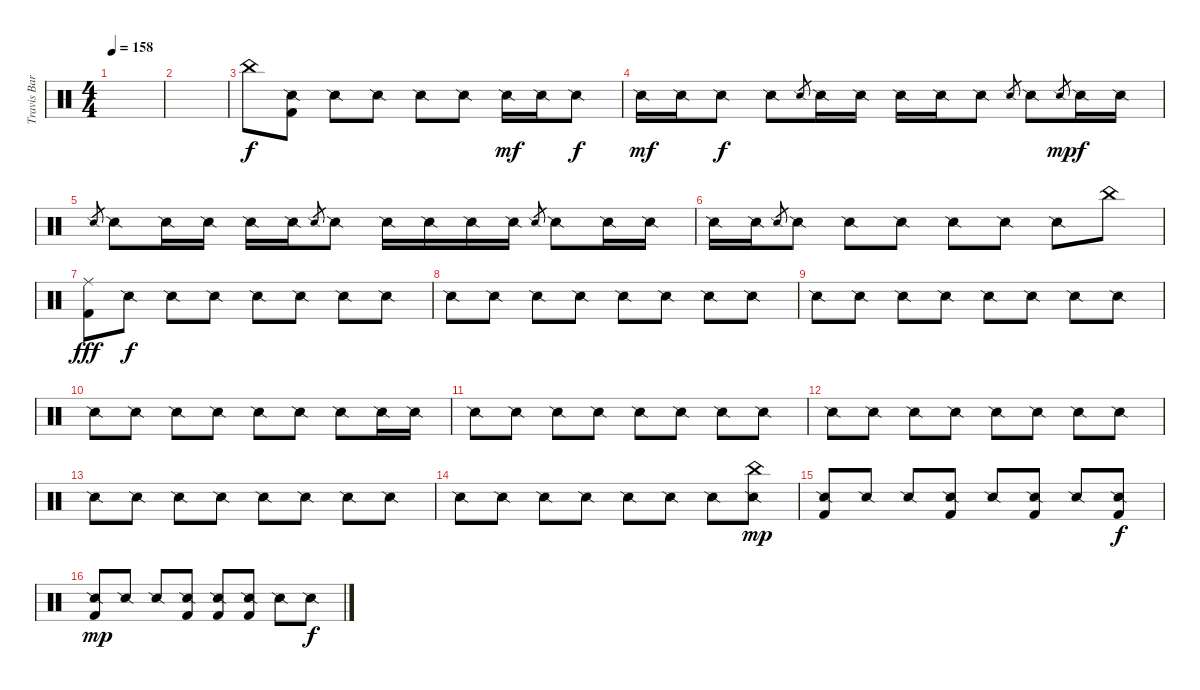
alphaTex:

\track ("Travis Barker - Drums" "Travis Bar") {instrument percussion}
\staff {score}
\articulation defaults
\ts (4 4)
\tempo 158
\clef neutral
\ks c
|
|
"China (hit)".8 ("Snare (side stick) 2" "Kick (hit) 2").8 "Snare (side stick) 2".8 "Snare (side stick) 2".8 "Snare (side stick) 2".8 "Snare (side stick) 2".8 "Snare (side stick) 2".16{dy mf} "Snare (side stick) 2".16 "Snare (side stick) 2".8{dy f} |
"Snare (side stick) 2".16{dy mf} "Snare (side stick) 2".16 "Snare (side stick) 2".8{dy f} "Snare (side stick) 2".8 "Snare (side stick) 2".8{gr} "Snare (side stick) 2".16 "Snare (side stick) 2".16 "Snare (side stick) 2".16 "Snare (side stick) 2".16 "Snare (side stick) 2".8 "Snare (side stick) 2".8{gr} "Snare (side stick) 2".8 "Snare (side stick) 2".8{gr dy mp} "Snare (side stick) 2".16{dy f} "Snare (side stick) 2".16 |
"Snare (side stick) 2".8{gr} "Snare (side stick) 2".8 "Snare (side stick) 2".16 "Snare (side stick) 2".16 "Snare (side stick) 2".16 "Snare (side stick) 2".16 "Snare (side stick) 2".8{gr} "Snare (side stick) 2".8 "Snare (side stick) 2".16 "Snare (side stick) 2".16 "Snare (side stick) 2".16 "Snare (side stick) 2".16 "Snare (side stick) 2".8{gr} "Snare (side stick) 2".8 "Snare (side stick) 2".16 "Snare (side stick) 2".16 |
"Snare (side stick) 2".16 "Snare (side stick) 2".16 "Snare (side stick) 2".8{gr} "Snare (side stick) 2".8 "Snare (side stick) 2".8 "Snare (side stick) 2".8 "Snare (side stick) 2".8 "Snare (side stick) 2".8 "Snare (side stick) 2".8 "China (hit)".8 |
("Ride (middle)" "Kick (hit) 2").8{dy fff} "Snare (side stick) 2".8{dy f} "Snare (side stick) 2".8 "Snare (side stick) 2".8 "Snare (side stick) 2".8 "Snare (side stick) 2".8 "Snare (side stick) 2".8 "Snare (side stick) 2".8 |
"Snare (side stick) 2".8 "Snare (side stick) 2".8 "Snare (side stick) 2".8 "Snare (side stick) 2".8 "Snare (side stick) 2".8 "Snare (side stick) 2".8 "Snare (side stick) 2".8 "Snare (side stick) 2".8 |
"Snare (side stick) 2".8 "Snare (side stick) 2".8 "Snare (side stick) 2".8 "Snare (side stick) 2".8 "Snare (side stick) 2".8 "Snare (side stick) 2".8 "Snare (side stick) 2".8 "Snare (side stick) 2".8 |
"Snare (side stick) 2".8 "Snare (side stick) 2".8 "Snare (side stick) 2".8 "Snare (side stick) 2".8 "Snare (side stick) 2".8 "Snare (side stick) 2".8 "Snare (side stick) 2".8 "Snare (side stick) 2".16 "Snare (side stick) 2".16 |
"Snare (side stick) 2".8 "Snare (side stick) 2".8 "Snare (side stick) 2".8 "Snare (side stick) 2".8 "Snare (side stick) 2".8 "Snare (side stick) 2".8 "Snare (side stick) 2".8 "Snare (side stick) 2".8 |
"Snare (side stick) 2".8 "Snare (side stick) 2".8 "Snare (side stick) 2".8 "Snare (side stick) 2".8 "Snare (side stick) 2".8 "Snare (side stick) 2".8 "Snare (side stick) 2".8 "Snare (side stick) 2".8 |
"Snare (side stick) 2".8 "Snare (side stick) 2".8 "Snare (side stick) 2".8 "Snare (side stick) 2".8 "Snare (side stick) 2".8 "Snare (side stick) 2".8 "Snare (side stick) 2".8 "Snare (side stick) 2".8 |
"Snare (side stick) 2".8 "Snare (side stick) 2".8 "Snare (side stick) 2".8 "Snare (side stick) 2".8 "Snare (side stick) 2".8 "Snare (side stick) 2".8 "Snare (side stick) 2".8 ("China (hit)" "Snare (side stick) 2").8{dy mp} |
("Snare (side stick) 2" "Kick (hit) 2").8 "Snare (side stick) 2".8 "Snare (side stick) 2".8 ("Snare (side stick) 2" "Kick (hit) 2").8 "Snare (side stick) 2".8 ("Snare (side stick) 2" "Kick (hit) 2").8 "Snare (side stick) 2".8 ("Snare (side stick) 2" "Kick (hit) 2").8{dy f} |
("Snare (side stick) 2" "Kick (hit) 2").8{dy mp} "Snare (side stick) 2".8 "Snare (side stick) 2".8 ("Snare (side stick) 2" "Kick (hit) 2").8 ("Snare (side stick) 2" "Kick (hit) 2").8 ("Snare (side stick) 2" "Kick (hit) 2").8 "Snare (side stick) 2".8 "Snare (side stick) 2".8{dy f}
